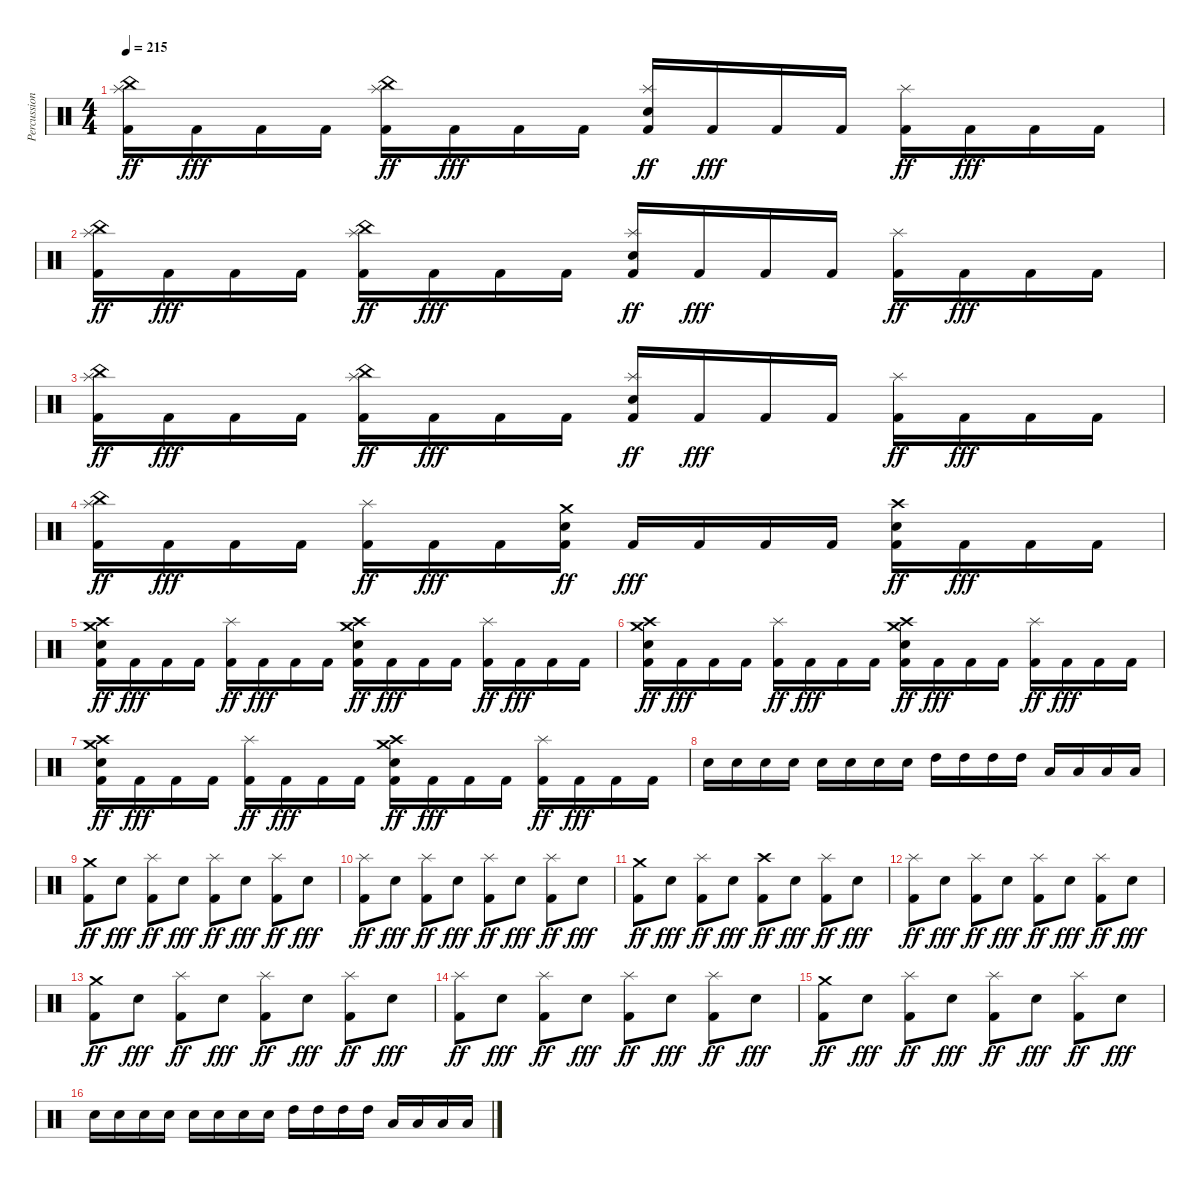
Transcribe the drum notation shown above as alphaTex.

\track ("Percussion" "Percussion") {instrument percussion}
\staff {score}
\articulation defaults
\ts (4 4)
\tempo 215
\clef neutral
\ks c
("Kick (hit) 2" "Splash (hit)" "China (hit)").16{dy ff} "Kick (hit) 2".16{dy fff} "Kick (hit) 2".16 "Kick (hit) 2".16 ("Kick (hit) 2" "Splash (hit)" "China (hit)").16{dy ff} "Kick (hit) 2".16{dy fff} "Kick (hit) 2".16 "Kick (hit) 2".16 ("Kick (hit) 2" "Electric Snare (hit)" "Splash (hit)").16{dy ff} "Kick (hit) 2".16{dy fff} "Kick (hit) 2".16 "Kick (hit) 2".16 ("Kick (hit) 2" "Splash (hit)").16{dy ff} "Kick (hit) 2".16{dy fff} "Kick (hit) 2".16 "Kick (hit) 2".16 |
("Kick (hit) 2" "Splash (hit)" "China (hit)").16{dy ff} "Kick (hit) 2".16{dy fff} "Kick (hit) 2".16 "Kick (hit) 2".16 ("Kick (hit) 2" "Splash (hit)" "China (hit)").16{dy ff} "Kick (hit) 2".16{dy fff} "Kick (hit) 2".16 "Kick (hit) 2".16 ("Kick (hit) 2" "Electric Snare (hit)" "Splash (hit)").16{dy ff} "Kick (hit) 2".16{dy fff} "Kick (hit) 2".16 "Kick (hit) 2".16 ("Kick (hit) 2" "Splash (hit)").16{dy ff} "Kick (hit) 2".16{dy fff} "Kick (hit) 2".16 "Kick (hit) 2".16 |
("Kick (hit) 2" "Splash (hit)" "China (hit)").16{dy ff} "Kick (hit) 2".16{dy fff} "Kick (hit) 2".16 "Kick (hit) 2".16 ("Kick (hit) 2" "Splash (hit)" "China (hit)").16{dy ff} "Kick (hit) 2".16{dy fff} "Kick (hit) 2".16 "Kick (hit) 2".16 ("Kick (hit) 2" "Electric Snare (hit)" "Splash (hit)").16{dy ff} "Kick (hit) 2".16{dy fff} "Kick (hit) 2".16 "Kick (hit) 2".16 ("Kick (hit) 2" "Splash (hit)").16{dy ff} "Kick (hit) 2".16{dy fff} "Kick (hit) 2".16 "Kick (hit) 2".16 |
("Kick (hit) 2" "Splash (hit)" "China (hit)").16{dy ff} "Kick (hit) 2".16{dy fff} "Kick (hit) 2".16 "Kick (hit) 2".16 ("Kick (hit) 2" "Splash (hit)").16{dy ff} "Kick (hit) 2".16{dy fff} "Kick (hit) 2".16 ("Kick (hit) 2" "Electric Snare (hit)" "Crash medium (hit)").16{dy ff} "Kick (hit) 2".16{dy fff} "Kick (hit) 2".16 "Kick (hit) 2".16 "Kick (hit) 2".16 ("Kick (hit) 2" "Electric Snare (hit)" "Crash high (hit)").16{dy ff} "Kick (hit) 2".16{dy fff} "Kick (hit) 2".16 "Kick (hit) 2".16 |
("Kick (hit) 2" "Electric Snare (hit)" "Crash medium (hit)" "Crash high (hit)").16{dy ff} "Kick (hit) 2".16{dy fff} "Kick (hit) 2".16 "Kick (hit) 2".16 ("Kick (hit) 2" "Splash (hit)").16{dy ff} "Kick (hit) 2".16{dy fff} "Kick (hit) 2".16 "Kick (hit) 2".16 ("Kick (hit) 2" "Electric Snare (hit)" "Crash high (hit)" "Crash medium (hit)").16{dy ff} "Kick (hit) 2".16{dy fff} "Kick (hit) 2".16 "Kick (hit) 2".16 ("Kick (hit) 2" "Splash (hit)").16{dy ff} "Kick (hit) 2".16{dy fff} "Kick (hit) 2".16 "Kick (hit) 2".16 |
("Kick (hit) 2" "Electric Snare (hit)" "Crash medium (hit)" "Crash high (hit)").16{dy ff} "Kick (hit) 2".16{dy fff} "Kick (hit) 2".16 "Kick (hit) 2".16 ("Kick (hit) 2" "Splash (hit)").16{dy ff} "Kick (hit) 2".16{dy fff} "Kick (hit) 2".16 "Kick (hit) 2".16 ("Kick (hit) 2" "Electric Snare (hit)" "Crash high (hit)" "Crash medium (hit)").16{dy ff} "Kick (hit) 2".16{dy fff} "Kick (hit) 2".16 "Kick (hit) 2".16 ("Kick (hit) 2" "Splash (hit)").16{dy ff} "Kick (hit) 2".16{dy fff} "Kick (hit) 2".16 "Kick (hit) 2".16 |
("Kick (hit) 2" "Electric Snare (hit)" "Crash medium (hit)" "Crash high (hit)").16{dy ff} "Kick (hit) 2".16{dy fff} "Kick (hit) 2".16 "Kick (hit) 2".16 ("Kick (hit) 2" "Splash (hit)").16{dy ff} "Kick (hit) 2".16{dy fff} "Kick (hit) 2".16 "Kick (hit) 2".16 ("Kick (hit) 2" "Electric Snare (hit)" "Crash high (hit)" "Crash medium (hit)").16{dy ff} "Kick (hit) 2".16{dy fff} "Kick (hit) 2".16 "Kick (hit) 2".16 ("Kick (hit) 2" "Splash (hit)").16{dy ff} "Kick (hit) 2".16{dy fff} "Kick (hit) 2".16 "Kick (hit) 2".16 |
"Electric Snare (hit)".16 "Electric Snare (hit)".16 "Electric Snare (hit)".16 "Electric Snare (hit)".16 "Electric Snare (hit)".16 "Electric Snare (hit)".16 "Electric Snare (hit)".16 "Electric Snare (hit)".16 "High Tom (hit)".16 "High Tom (hit)".16 "High Tom (hit)".16 "High Tom (hit)".16 "Low Floor Tom (hit)".16 "Low Floor Tom (hit)".16 "Low Floor Tom (hit)".16 "Low Floor Tom (hit)".16 |
("Kick (hit) 2" "Crash medium (hit)").8{dy ff} "Electric Snare (hit)".8{dy fff} ("Kick (hit) 2" "Splash (hit)").8{dy ff} "Electric Snare (hit)".8{dy fff} ("Kick (hit) 2" "Splash (hit)").8{dy ff} "Electric Snare (hit)".8{dy fff} ("Kick (hit) 2" "Splash (hit)").8{dy ff} "Electric Snare (hit)".8{dy fff} |
("Kick (hit) 2" "Splash (hit)").8{dy ff} "Electric Snare (hit)".8{dy fff} ("Kick (hit) 2" "Splash (hit)").8{dy ff} "Electric Snare (hit)".8{dy fff} ("Kick (hit) 2" "Splash (hit)").8{dy ff} "Electric Snare (hit)".8{dy fff} ("Kick (hit) 2" "Splash (hit)").8{dy ff} "Electric Snare (hit)".8{dy fff} |
("Kick (hit) 2" "Crash medium (hit)").8{dy ff} "Electric Snare (hit)".8{dy fff} ("Kick (hit) 2" "Splash (hit)").8{dy ff} "Electric Snare (hit)".8{dy fff} ("Kick (hit) 2" "Crash high (hit)").8{dy ff} "Electric Snare (hit)".8{dy fff} ("Kick (hit) 2" "Splash (hit)").8{dy ff} "Electric Snare (hit)".8{dy fff} |
("Kick (hit) 2" "Splash (hit)").8{dy ff} "Electric Snare (hit)".8{dy fff} ("Kick (hit) 2" "Splash (hit)").8{dy ff} "Electric Snare (hit)".8{dy fff} ("Kick (hit) 2" "Splash (hit)").8{dy ff} "Electric Snare (hit)".8{dy fff} ("Kick (hit) 2" "Splash (hit)").8{dy ff} "Electric Snare (hit)".8{dy fff} |
("Kick (hit) 2" "Crash medium (hit)").8{dy ff} "Electric Snare (hit)".8{dy fff} ("Kick (hit) 2" "Splash (hit)").8{dy ff} "Electric Snare (hit)".8{dy fff} ("Kick (hit) 2" "Splash (hit)").8{dy ff} "Electric Snare (hit)".8{dy fff} ("Kick (hit) 2" "Splash (hit)").8{dy ff} "Electric Snare (hit)".8{dy fff} |
("Kick (hit) 2" "Splash (hit)").8{dy ff} "Electric Snare (hit)".8{dy fff} ("Kick (hit) 2" "Splash (hit)").8{dy ff} "Electric Snare (hit)".8{dy fff} ("Kick (hit) 2" "Splash (hit)").8{dy ff} "Electric Snare (hit)".8{dy fff} ("Kick (hit) 2" "Splash (hit)").8{dy ff} "Electric Snare (hit)".8{dy fff} |
("Kick (hit) 2" "Crash medium (hit)").8{dy ff} "Electric Snare (hit)".8{dy fff} ("Kick (hit) 2" "Splash (hit)").8{dy ff} "Electric Snare (hit)".8{dy fff} ("Kick (hit) 2" "Splash (hit)").8{dy ff} "Electric Snare (hit)".8{dy fff} ("Kick (hit) 2" "Splash (hit)").8{dy ff} "Electric Snare (hit)".8{dy fff} |
"Electric Snare (hit)".16 "Electric Snare (hit)".16 "Electric Snare (hit)".16 "Electric Snare (hit)".16 "Electric Snare (hit)".16 "Electric Snare (hit)".16 "Electric Snare (hit)".16 "Electric Snare (hit)".16 "High Tom (hit)".16 "High Tom (hit)".16 "High Tom (hit)".16 "High Tom (hit)".16 "Low Floor Tom (hit)".16 "Low Floor Tom (hit)".16 "Low Floor Tom (hit)".16 "Low Floor Tom (hit)".16
